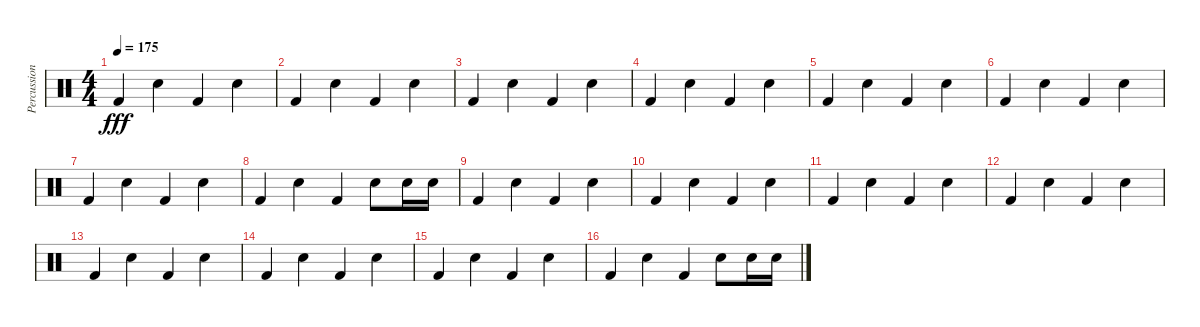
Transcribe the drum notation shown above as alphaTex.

\track ("Percussion" "Percussion") {instrument percussion}
\staff {score}
\articulation defaults
\ts (4 4)
\tempo 175
\clef neutral
\ks c "Kick (hit) 2".4{dy fff} "Snare (hit) 2".4 "Kick (hit) 2".4 "Snare (hit) 2".4
|
"Kick (hit) 2".4 "Snare (hit) 2".4 "Kick (hit) 2".4 "Snare (hit) 2".4 |
"Kick (hit) 2".4 "Snare (hit) 2".4 "Kick (hit) 2".4 "Snare (hit) 2".4 |
"Kick (hit) 2".4 "Snare (hit) 2".4 "Kick (hit) 2".4 "Snare (hit) 2".4 |
"Kick (hit) 2".4 "Snare (hit) 2".4 "Kick (hit) 2".4 "Snare (hit) 2".4 |
"Kick (hit) 2".4 "Snare (hit) 2".4 "Kick (hit) 2".4 "Snare (hit) 2".4 |
"Kick (hit) 2".4 "Snare (hit) 2".4 "Kick (hit) 2".4 "Snare (hit) 2".4 |
"Kick (hit) 2".4 "Snare (hit) 2".4 "Kick (hit) 2".4 "Snare (hit) 2".8 "Snare (hit) 2".16 "Snare (hit) 2".16 |
"Kick (hit) 2".4 "Snare (hit) 2".4 "Kick (hit) 2".4 "Snare (hit) 2".4 |
"Kick (hit) 2".4 "Snare (hit) 2".4 "Kick (hit) 2".4 "Snare (hit) 2".4 |
"Kick (hit) 2".4 "Snare (hit) 2".4 "Kick (hit) 2".4 "Snare (hit) 2".4 |
"Kick (hit) 2".4 "Snare (hit) 2".4 "Kick (hit) 2".4 "Snare (hit) 2".4 |
"Kick (hit) 2".4 "Snare (hit) 2".4 "Kick (hit) 2".4 "Snare (hit) 2".4 |
"Kick (hit) 2".4 "Snare (hit) 2".4 "Kick (hit) 2".4 "Snare (hit) 2".4 |
"Kick (hit) 2".4 "Snare (hit) 2".4 "Kick (hit) 2".4 "Snare (hit) 2".4 |
"Kick (hit) 2".4 "Snare (hit) 2".4 "Kick (hit) 2".4 "Snare (hit) 2".8 "Snare (hit) 2".16 "Snare (hit) 2".16
